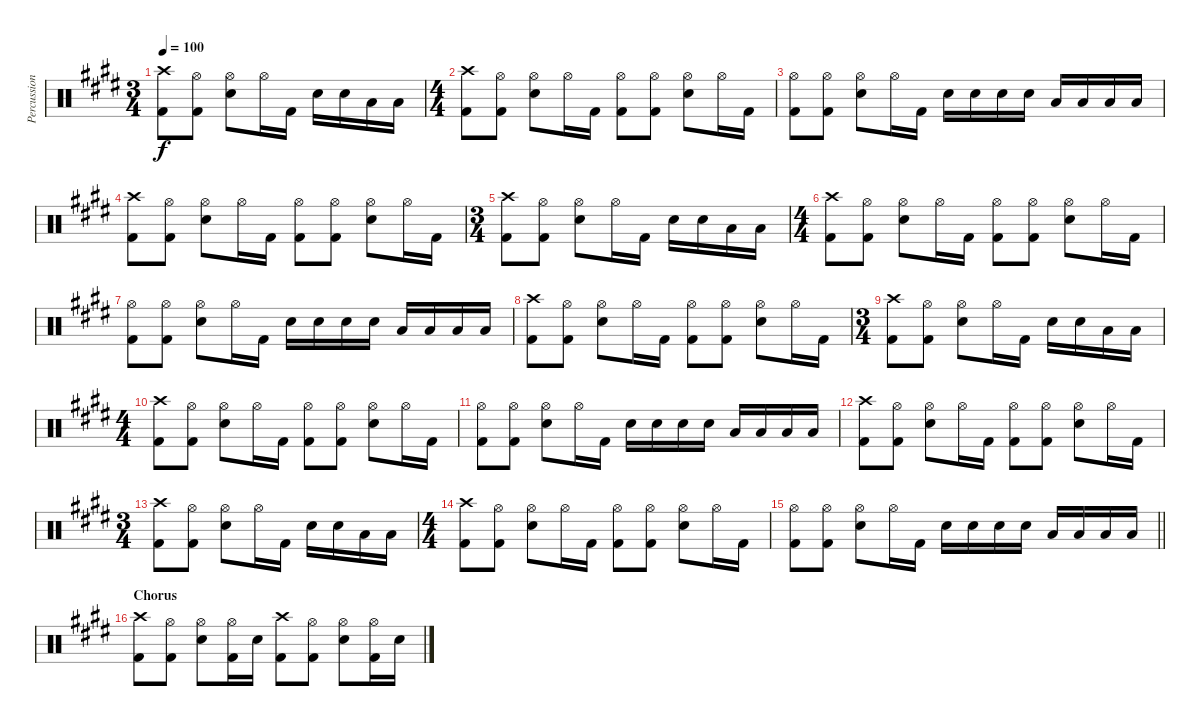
\track ("Percussion" "Percussion") {instrument percussion}
\staff {score}
\articulation defaults
\ts (3 4)
\tempo 100
\clef neutral
\ks e
("Crash high (hit)" "Kick (hit) 2").8{dy f} ("Hi-Hat (open)" "Kick (hit) 2").8 ("Hi-Hat (open)" "Electric Snare (hit)").8 "Hi-Hat (open)".16 "Kick (hit) 2".16 "Electric Snare (hit)".16 "Electric Snare (hit)".16 "Low Tom (hit)".16 "Low Tom (hit)".16 |
\ts (4 4)
("Crash high (hit)" "Kick (hit) 2").8 ("Hi-Hat (open)" "Kick (hit) 2").8 ("Hi-Hat (open)" "Electric Snare (hit)").8 "Hi-Hat (open)".16 "Kick (hit) 2".16 ("Hi-Hat (open)" "Kick (hit) 2").8 ("Hi-Hat (open)" "Kick (hit) 2").8 ("Hi-Hat (open)" "Electric Snare (hit)").8 "Hi-Hat (open)".16 "Kick (hit) 2".16 |
("Hi-Hat (open)" "Kick (hit) 2").8 ("Hi-Hat (open)" "Kick (hit) 2").8 ("Hi-Hat (open)" "Electric Snare (hit)").8 "Hi-Hat (open)".16 "Kick (hit) 2".16 "Electric Snare (hit)".16 "Electric Snare (hit)".16 "Electric Snare (hit)".16 "Electric Snare (hit)".16 "Low Tom (hit)".16 "Low Tom (hit)".16 "Low Tom (hit)".16 "Low Tom (hit)".16 |
("Crash high (hit)" "Kick (hit) 2").8 ("Hi-Hat (open)" "Kick (hit) 2").8 ("Hi-Hat (open)" "Electric Snare (hit)").8 "Hi-Hat (open)".16 "Kick (hit) 2".16 ("Hi-Hat (open)" "Kick (hit) 2").8 ("Hi-Hat (open)" "Kick (hit) 2").8 ("Hi-Hat (open)" "Electric Snare (hit)").8 "Hi-Hat (open)".16 "Kick (hit) 2".16 |
\ts (3 4)
("Crash high (hit)" "Kick (hit) 2").8 ("Hi-Hat (open)" "Kick (hit) 2").8 ("Hi-Hat (open)" "Electric Snare (hit)").8 "Hi-Hat (open)".16 "Kick (hit) 2".16 "Electric Snare (hit)".16 "Electric Snare (hit)".16 "Low Tom (hit)".16 "Low Tom (hit)".16 |
\ts (4 4)
("Crash high (hit)" "Kick (hit) 2").8 ("Hi-Hat (open)" "Kick (hit) 2").8 ("Hi-Hat (open)" "Electric Snare (hit)").8 "Hi-Hat (open)".16 "Kick (hit) 2".16 ("Hi-Hat (open)" "Kick (hit) 2").8 ("Hi-Hat (open)" "Kick (hit) 2").8 ("Hi-Hat (open)" "Electric Snare (hit)").8 "Hi-Hat (open)".16 "Kick (hit) 2".16 |
("Hi-Hat (open)" "Kick (hit) 2").8 ("Hi-Hat (open)" "Kick (hit) 2").8 ("Hi-Hat (open)" "Electric Snare (hit)").8 "Hi-Hat (open)".16 "Kick (hit) 2".16 "Electric Snare (hit)".16 "Electric Snare (hit)".16 "Electric Snare (hit)".16 "Electric Snare (hit)".16 "Low Tom (hit)".16 "Low Tom (hit)".16 "Low Tom (hit)".16 "Low Tom (hit)".16 |
("Crash high (hit)" "Kick (hit) 2").8 ("Hi-Hat (open)" "Kick (hit) 2").8 ("Hi-Hat (open)" "Electric Snare (hit)").8 "Hi-Hat (open)".16 "Kick (hit) 2".16 ("Hi-Hat (open)" "Kick (hit) 2").8 ("Hi-Hat (open)" "Kick (hit) 2").8 ("Hi-Hat (open)" "Electric Snare (hit)").8 "Hi-Hat (open)".16 "Kick (hit) 2".16 |
\ts (3 4)
("Crash high (hit)" "Kick (hit) 2").8 ("Hi-Hat (open)" "Kick (hit) 2").8 ("Hi-Hat (open)" "Electric Snare (hit)").8 "Hi-Hat (open)".16 "Kick (hit) 2".16 "Electric Snare (hit)".16 "Electric Snare (hit)".16 "Low Tom (hit)".16 "Low Tom (hit)".16 |
\ts (4 4)
("Crash high (hit)" "Kick (hit) 2").8 ("Hi-Hat (open)" "Kick (hit) 2").8 ("Hi-Hat (open)" "Electric Snare (hit)").8 "Hi-Hat (open)".16 "Kick (hit) 2".16 ("Hi-Hat (open)" "Kick (hit) 2").8 ("Hi-Hat (open)" "Kick (hit) 2").8 ("Hi-Hat (open)" "Electric Snare (hit)").8 "Hi-Hat (open)".16 "Kick (hit) 2".16 |
("Hi-Hat (open)" "Kick (hit) 2").8 ("Hi-Hat (open)" "Kick (hit) 2").8 ("Hi-Hat (open)" "Electric Snare (hit)").8 "Hi-Hat (open)".16 "Kick (hit) 2".16 "Electric Snare (hit)".16 "Electric Snare (hit)".16 "Electric Snare (hit)".16 "Electric Snare (hit)".16 "Low Tom (hit)".16 "Low Tom (hit)".16 "Low Tom (hit)".16 "Low Tom (hit)".16 |
("Crash high (hit)" "Kick (hit) 2").8 ("Hi-Hat (open)" "Kick (hit) 2").8 ("Hi-Hat (open)" "Electric Snare (hit)").8 "Hi-Hat (open)".16 "Kick (hit) 2".16 ("Hi-Hat (open)" "Kick (hit) 2").8 ("Hi-Hat (open)" "Kick (hit) 2").8 ("Hi-Hat (open)" "Electric Snare (hit)").8 "Hi-Hat (open)".16 "Kick (hit) 2".16 |
\ts (3 4)
("Crash high (hit)" "Kick (hit) 2").8 ("Hi-Hat (open)" "Kick (hit) 2").8 ("Hi-Hat (open)" "Electric Snare (hit)").8 "Hi-Hat (open)".16 "Kick (hit) 2".16 "Electric Snare (hit)".16 "Electric Snare (hit)".16 "Low Tom (hit)".16 "Low Tom (hit)".16 |
\ts (4 4)
("Crash high (hit)" "Kick (hit) 2").8 ("Hi-Hat (open)" "Kick (hit) 2").8 ("Hi-Hat (open)" "Electric Snare (hit)").8 "Hi-Hat (open)".16 "Kick (hit) 2".16 ("Hi-Hat (open)" "Kick (hit) 2").8 ("Hi-Hat (open)" "Kick (hit) 2").8 ("Hi-Hat (open)" "Electric Snare (hit)").8 "Hi-Hat (open)".16 "Kick (hit) 2".16 |
\barLineRight lightlight
("Hi-Hat (open)" "Kick (hit) 2").8 ("Hi-Hat (open)" "Kick (hit) 2").8 ("Hi-Hat (open)" "Electric Snare (hit)").8 "Hi-Hat (open)".16 "Kick (hit) 2".16 "Electric Snare (hit)".16 "Electric Snare (hit)".16 "Electric Snare (hit)".16 "Electric Snare (hit)".16 "Low Tom (hit)".16 "Low Tom (hit)".16 "Low Tom (hit)".16 "Low Tom (hit)".16 |
\section ("" "Chorus")
("Crash high (hit)" "Kick (hit) 2").8 ("Hi-Hat (open)" "Kick (hit) 2").8 ("Hi-Hat (open)" "Electric Snare (hit)").8 ("Hi-Hat (open)" "Kick (hit) 2").16 "Electric Snare (hit)".16 ("Crash high (hit)" "Kick (hit) 2").8 ("Hi-Hat (open)" "Kick (hit) 2").8 ("Hi-Hat (open)" "Electric Snare (hit)").8 ("Hi-Hat (open)" "Kick (hit) 2").16 "Electric Snare (hit)".16
